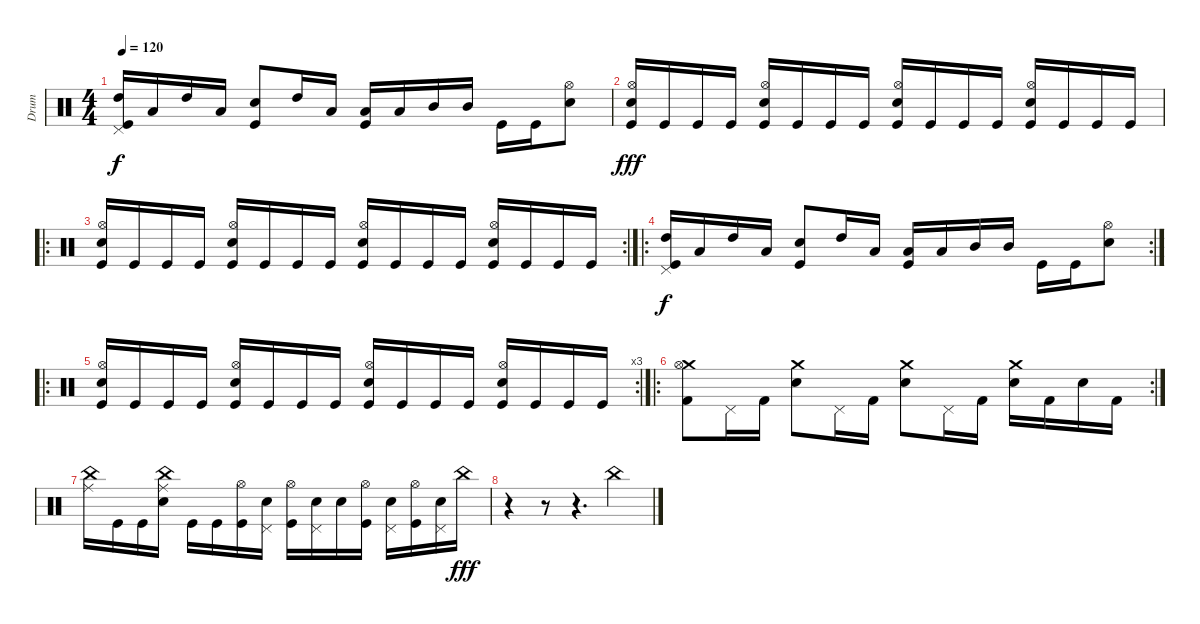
\track ("Drum" "Drum") {instrument percussion}
\staff {score}
\articulation defaults
\ts (4 4)
\tempo 120
\clef neutral
\ks c
("High Tom (hit)" "Kick (hit)" "Pedal Hi-Hat (hit)").16{dy f} "Low Tom (hit)".16 "High Tom (hit)".16 "Low Tom (hit)".16 ("Kick (hit)" "Snare (hit) 2").8 "High Tom (hit)".16 "Low Tom (hit)".16 ("Low Tom (hit)" "Kick (hit)").16 "Low Tom (hit)".16 "Mid Tom (hit)".16 "Mid Tom (hit)".16 "Kick (hit)".16 "Kick (hit)".16 ("Snare (hit) 2" "Hi-Hat (open)").8 |
("Hi-Hat (open)" "Electric Snare (hit)" "Kick (hit)").16{dy fff} "Kick (hit)".16 "Kick (hit)".16 "Kick (hit)".16 ("Hi-Hat (open)" "Electric Snare (hit)" "Kick (hit)").16 "Kick (hit)".16 "Kick (hit)".16 "Kick (hit)".16 ("Hi-Hat (open)" "Electric Snare (hit)" "Kick (hit)").16 "Kick (hit)".16 "Kick (hit)".16 "Kick (hit)".16 ("Hi-Hat (open)" "Electric Snare (hit)" "Kick (hit)").16 "Kick (hit)".16 "Kick (hit)".16 "Kick (hit)".16 |
\ro
\rc 2
("Hi-Hat (open)" "Electric Snare (hit)" "Kick (hit)").16 "Kick (hit)".16 "Kick (hit)".16 "Kick (hit)".16 ("Hi-Hat (open)" "Electric Snare (hit)" "Kick (hit)").16 "Kick (hit)".16 "Kick (hit)".16 "Kick (hit)".16 ("Hi-Hat (open)" "Electric Snare (hit)" "Kick (hit)").16 "Kick (hit)".16 "Kick (hit)".16 "Kick (hit)".16 ("Hi-Hat (open)" "Electric Snare (hit)" "Kick (hit)").16 "Kick (hit)".16 "Kick (hit)".16 "Kick (hit)".16 |
\ro
\rc 2
("High Tom (hit)" "Kick (hit)" "Pedal Hi-Hat (hit)").16{dy f} "Low Tom (hit)".16 "High Tom (hit)".16 "Low Tom (hit)".16 ("Kick (hit)" "Snare (hit) 2").8 "High Tom (hit)".16 "Low Tom (hit)".16 ("Low Tom (hit)" "Kick (hit)").16 "Low Tom (hit)".16 "Mid Tom (hit)".16 "Mid Tom (hit)".16 "Kick (hit)".16 "Kick (hit)".16 ("Snare (hit) 2" "Hi-Hat (open)").8 |
\ro
\rc 3
("Hi-Hat (open)" "Electric Snare (hit)" "Kick (hit)").16 "Kick (hit)".16 "Kick (hit)".16 "Kick (hit)".16 ("Hi-Hat (open)" "Electric Snare (hit)" "Kick (hit)").16 "Kick (hit)".16 "Kick (hit)".16 "Kick (hit)".16 ("Hi-Hat (open)" "Electric Snare (hit)" "Kick (hit)").16 "Kick (hit)".16 "Kick (hit)".16 "Kick (hit)".16 ("Hi-Hat (open)" "Electric Snare (hit)" "Kick (hit)").16 "Kick (hit)".16 "Kick (hit)".16 "Kick (hit)".16 |
\ro
\rc 2
("Crash medium (hit)" "Hi-Hat (open)" "Kick (hit) 2").8 "Pedal Hi-Hat (hit)".16 "Kick (hit) 2".16 ("Crash medium (hit)" "Electric Snare (hit)").8 "Pedal Hi-Hat (hit)".16 "Kick (hit) 2".16 ("Crash medium (hit)" "Electric Snare (hit)").8 "Pedal Hi-Hat (hit)".16 "Kick (hit) 2".16 ("Crash medium (hit)" "Electric Snare (hit)").16 "Kick (hit) 2".16 "Electric Snare (hit)".16 "Kick (hit) 2".16 |
("Ride (middle)" "China (hit)").16 "Kick (hit)".16 "Kick (hit)".16 ("Ride (middle)" "China (hit)" "Snare (hit) 2").16 "Kick (hit)".16 "Kick (hit)".16 ("Kick (hit)" "Hi-Hat (open)").16 ("Electric Snare (hit)" "Pedal Hi-Hat (hit)").16 ("Kick (hit)" "Hi-Hat (open)").16 ("Electric Snare (hit)" "Pedal Hi-Hat (hit)").16 "Electric Snare (hit)".16 ("Kick (hit)" "Hi-Hat (open)").16 ("Electric Snare (hit)" "Pedal Hi-Hat (hit)").16 ("Kick (hit)" "Hi-Hat (open)").16 ("Electric Snare (hit)" "Pedal Hi-Hat (hit)").16 "China (hit)".16{dy fff} |
r.4 r.8 r.4{d} "China (hit)".4
